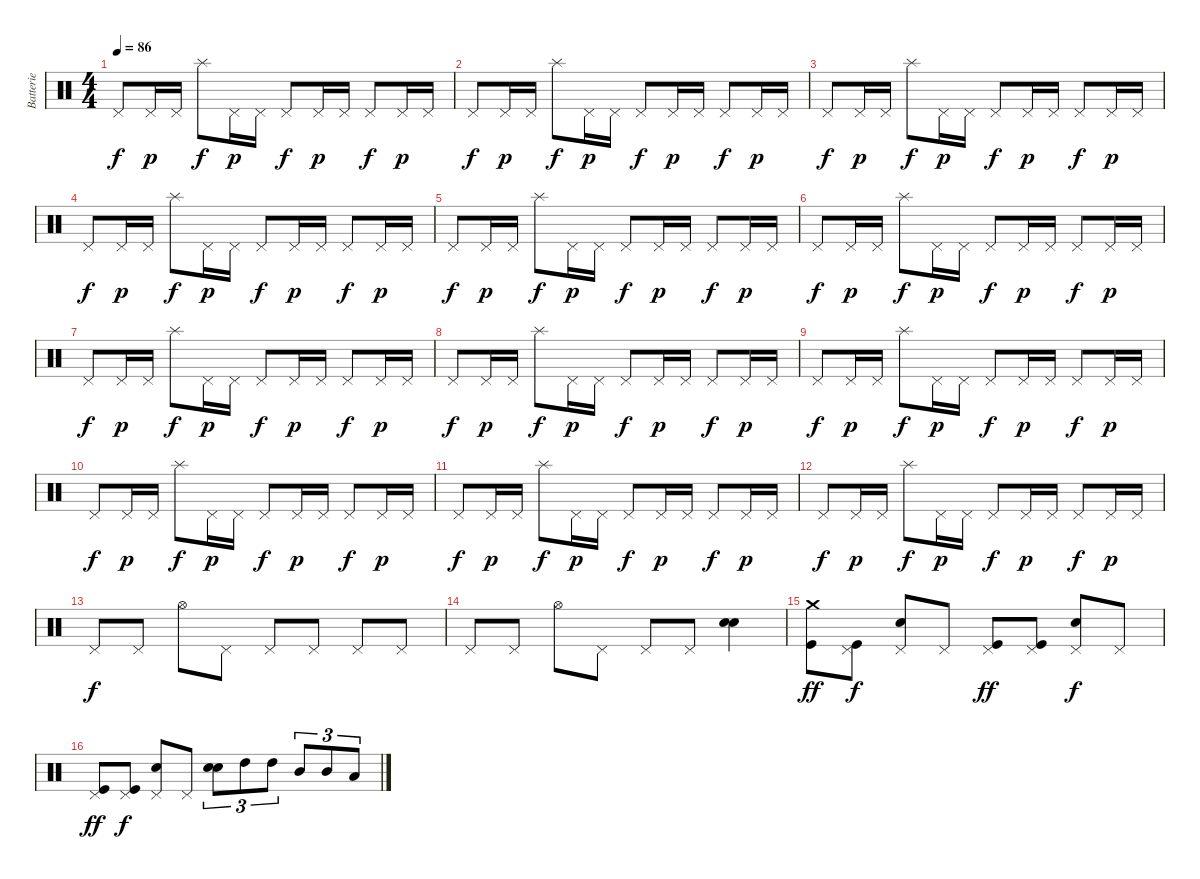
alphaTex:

\track ("Batterie" "Batterie") {instrument percussion}
\staff {score}
\articulation defaults
\ts (4 4)
\tempo 86
\clef neutral
\ks c "Pedal Hi-Hat (hit)".8{dy f} "Pedal Hi-Hat (hit)".16{dy p} "Pedal Hi-Hat (hit)".16 "Splash (hit)".8{dy f} "Pedal Hi-Hat (hit)".16{dy p} "Pedal Hi-Hat (hit)".16 "Pedal Hi-Hat (hit)".8{dy f} "Pedal Hi-Hat (hit)".16{dy p} "Pedal Hi-Hat (hit)".16 "Pedal Hi-Hat (hit)".8{dy f} "Pedal Hi-Hat (hit)".16{dy p} "Pedal Hi-Hat (hit)".16
|
"Pedal Hi-Hat (hit)".8{dy f} "Pedal Hi-Hat (hit)".16{dy p} "Pedal Hi-Hat (hit)".16 "Splash (hit)".8{dy f} "Pedal Hi-Hat (hit)".16{dy p} "Pedal Hi-Hat (hit)".16 "Pedal Hi-Hat (hit)".8{dy f} "Pedal Hi-Hat (hit)".16{dy p} "Pedal Hi-Hat (hit)".16 "Pedal Hi-Hat (hit)".8{dy f} "Pedal Hi-Hat (hit)".16{dy p} "Pedal Hi-Hat (hit)".16 |
"Pedal Hi-Hat (hit)".8{dy f} "Pedal Hi-Hat (hit)".16{dy p} "Pedal Hi-Hat (hit)".16 "Splash (hit)".8{dy f} "Pedal Hi-Hat (hit)".16{dy p} "Pedal Hi-Hat (hit)".16 "Pedal Hi-Hat (hit)".8{dy f} "Pedal Hi-Hat (hit)".16{dy p} "Pedal Hi-Hat (hit)".16 "Pedal Hi-Hat (hit)".8{dy f} "Pedal Hi-Hat (hit)".16{dy p} "Pedal Hi-Hat (hit)".16 |
"Pedal Hi-Hat (hit)".8{dy f} "Pedal Hi-Hat (hit)".16{dy p} "Pedal Hi-Hat (hit)".16 "Splash (hit)".8{dy f} "Pedal Hi-Hat (hit)".16{dy p} "Pedal Hi-Hat (hit)".16 "Pedal Hi-Hat (hit)".8{dy f} "Pedal Hi-Hat (hit)".16{dy p} "Pedal Hi-Hat (hit)".16 "Pedal Hi-Hat (hit)".8{dy f} "Pedal Hi-Hat (hit)".16{dy p} "Pedal Hi-Hat (hit)".16 |
"Pedal Hi-Hat (hit)".8{dy f} "Pedal Hi-Hat (hit)".16{dy p} "Pedal Hi-Hat (hit)".16 "Splash (hit)".8{dy f} "Pedal Hi-Hat (hit)".16{dy p} "Pedal Hi-Hat (hit)".16 "Pedal Hi-Hat (hit)".8{dy f} "Pedal Hi-Hat (hit)".16{dy p} "Pedal Hi-Hat (hit)".16 "Pedal Hi-Hat (hit)".8{dy f} "Pedal Hi-Hat (hit)".16{dy p} "Pedal Hi-Hat (hit)".16 |
"Pedal Hi-Hat (hit)".8{dy f} "Pedal Hi-Hat (hit)".16{dy p} "Pedal Hi-Hat (hit)".16 "Splash (hit)".8{dy f} "Pedal Hi-Hat (hit)".16{dy p} "Pedal Hi-Hat (hit)".16 "Pedal Hi-Hat (hit)".8{dy f} "Pedal Hi-Hat (hit)".16{dy p} "Pedal Hi-Hat (hit)".16 "Pedal Hi-Hat (hit)".8{dy f} "Pedal Hi-Hat (hit)".16{dy p} "Pedal Hi-Hat (hit)".16 |
"Pedal Hi-Hat (hit)".8{dy f} "Pedal Hi-Hat (hit)".16{dy p} "Pedal Hi-Hat (hit)".16 "Splash (hit)".8{dy f} "Pedal Hi-Hat (hit)".16{dy p} "Pedal Hi-Hat (hit)".16 "Pedal Hi-Hat (hit)".8{dy f} "Pedal Hi-Hat (hit)".16{dy p} "Pedal Hi-Hat (hit)".16 "Pedal Hi-Hat (hit)".8{dy f} "Pedal Hi-Hat (hit)".16{dy p} "Pedal Hi-Hat (hit)".16 |
"Pedal Hi-Hat (hit)".8{dy f} "Pedal Hi-Hat (hit)".16{dy p} "Pedal Hi-Hat (hit)".16 "Splash (hit)".8{dy f} "Pedal Hi-Hat (hit)".16{dy p} "Pedal Hi-Hat (hit)".16 "Pedal Hi-Hat (hit)".8{dy f} "Pedal Hi-Hat (hit)".16{dy p} "Pedal Hi-Hat (hit)".16 "Pedal Hi-Hat (hit)".8{dy f} "Pedal Hi-Hat (hit)".16{dy p} "Pedal Hi-Hat (hit)".16 |
"Pedal Hi-Hat (hit)".8{dy f} "Pedal Hi-Hat (hit)".16{dy p} "Pedal Hi-Hat (hit)".16 "Splash (hit)".8{dy f} "Pedal Hi-Hat (hit)".16{dy p} "Pedal Hi-Hat (hit)".16 "Pedal Hi-Hat (hit)".8{dy f} "Pedal Hi-Hat (hit)".16{dy p} "Pedal Hi-Hat (hit)".16 "Pedal Hi-Hat (hit)".8{dy f} "Pedal Hi-Hat (hit)".16{dy p} "Pedal Hi-Hat (hit)".16 |
"Pedal Hi-Hat (hit)".8{dy f} "Pedal Hi-Hat (hit)".16{dy p} "Pedal Hi-Hat (hit)".16 "Splash (hit)".8{dy f} "Pedal Hi-Hat (hit)".16{dy p} "Pedal Hi-Hat (hit)".16 "Pedal Hi-Hat (hit)".8{dy f} "Pedal Hi-Hat (hit)".16{dy p} "Pedal Hi-Hat (hit)".16 "Pedal Hi-Hat (hit)".8{dy f} "Pedal Hi-Hat (hit)".16{dy p} "Pedal Hi-Hat (hit)".16 |
"Pedal Hi-Hat (hit)".8{dy f} "Pedal Hi-Hat (hit)".16{dy p} "Pedal Hi-Hat (hit)".16 "Splash (hit)".8{dy f} "Pedal Hi-Hat (hit)".16{dy p} "Pedal Hi-Hat (hit)".16 "Pedal Hi-Hat (hit)".8{dy f} "Pedal Hi-Hat (hit)".16{dy p} "Pedal Hi-Hat (hit)".16 "Pedal Hi-Hat (hit)".8{dy f} "Pedal Hi-Hat (hit)".16{dy p} "Pedal Hi-Hat (hit)".16 |
"Pedal Hi-Hat (hit)".8{dy f} "Pedal Hi-Hat (hit)".16{dy p} "Pedal Hi-Hat (hit)".16 "Splash (hit)".8{dy f} "Pedal Hi-Hat (hit)".16{dy p} "Pedal Hi-Hat (hit)".16 "Pedal Hi-Hat (hit)".8{dy f} "Pedal Hi-Hat (hit)".16{dy p} "Pedal Hi-Hat (hit)".16 "Pedal Hi-Hat (hit)".8{dy f} "Pedal Hi-Hat (hit)".16{dy p} "Pedal Hi-Hat (hit)".16 |
"Pedal Hi-Hat (hit)".8{dy f} "Pedal Hi-Hat (hit)".8 "Hi-Hat (open)".8 "Pedal Hi-Hat (hit)".8 "Pedal Hi-Hat (hit)".8 "Pedal Hi-Hat (hit)".8 "Pedal Hi-Hat (hit)".8 "Pedal Hi-Hat (hit)".8 |
"Pedal Hi-Hat (hit)".8 "Pedal Hi-Hat (hit)".8 "Hi-Hat (open)".8 "Pedal Hi-Hat (hit)".8 "Pedal Hi-Hat (hit)".8 "Pedal Hi-Hat (hit)".8 ("Electric Snare (hit)" "Electric Snare (hit)").4{bu 120} |
("Crash medium (hit)" "Kick (hit)").8{dy ff} ("Pedal Hi-Hat (hit)" "Kick (hit)").8{dy f} ("Pedal Hi-Hat (hit)" "Electric Snare (hit)").8 "Pedal Hi-Hat (hit)".8 ("Pedal Hi-Hat (hit)" "Kick (hit)").8{dy ff} ("Pedal Hi-Hat (hit)" "Kick (hit)").8 ("Pedal Hi-Hat (hit)" "Electric Snare (hit)").8{dy f} "Pedal Hi-Hat (hit)".8 |
("Pedal Hi-Hat (hit)" "Kick (hit)").8{dy ff} ("Pedal Hi-Hat (hit)" "Kick (hit)").8{dy f} ("Pedal Hi-Hat (hit)" "Electric Snare (hit)").8 "Pedal Hi-Hat (hit)".8 ("Electric Snare (hit)" "Electric Snare (hit)").8{tu (3 2) bu 120} "High Tom (hit)".8{tu (3 2)} "High Tom (hit)".8{tu (3 2)} "Mid Tom (hit)".8{tu (3 2)} "Mid Tom (hit)".8{tu (3 2)} "Low Tom (hit)".8{tu (3 2)}
